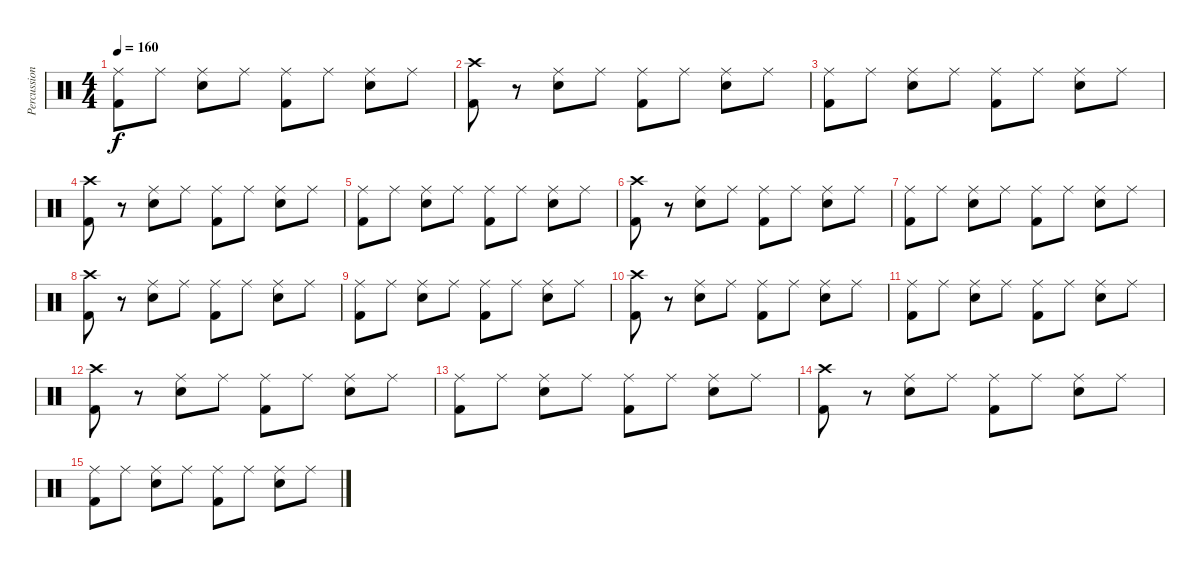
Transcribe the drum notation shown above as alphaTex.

\track ("Percussion - live 1983" "Percussion") {mute instrument percussion}
\staff {score}
\articulation defaults
\ts (4 4)
\tempo 160
\clef neutral
\ks c
("Ride (middle)" "Kick (hit) 2").8{dy f} "Ride (middle)".8 ("Ride (middle)" "Snare (hit) 2").8 "Ride (middle)".8 ("Ride (middle)" "Kick (hit) 2").8 "Ride (middle)".8 ("Ride (middle)" "Snare (hit) 2").8 "Ride (middle)".8 |
("Crash high (hit)" "Kick (hit) 2").8 r.8 ("Ride (middle)" "Snare (hit) 2").8 "Ride (middle)".8 ("Ride (middle)" "Kick (hit) 2").8 "Ride (middle)".8 ("Ride (middle)" "Snare (hit) 2").8 "Ride (middle)".8 |
("Ride (middle)" "Kick (hit) 2").8 "Ride (middle)".8 ("Ride (middle)" "Snare (hit) 2").8 "Ride (middle)".8 ("Ride (middle)" "Kick (hit) 2").8 "Ride (middle)".8 ("Ride (middle)" "Snare (hit) 2").8 "Ride (middle)".8 |
("Crash high (hit)" "Kick (hit) 2").8 r.8 ("Ride (middle)" "Snare (hit) 2").8 "Ride (middle)".8 ("Ride (middle)" "Kick (hit) 2").8 "Ride (middle)".8 ("Ride (middle)" "Snare (hit) 2").8 "Ride (middle)".8 |
("Ride (middle)" "Kick (hit) 2").8 "Ride (middle)".8 ("Ride (middle)" "Snare (hit) 2").8 "Ride (middle)".8 ("Ride (middle)" "Kick (hit) 2").8 "Ride (middle)".8 ("Ride (middle)" "Snare (hit) 2").8 "Ride (middle)".8 |
("Crash high (hit)" "Kick (hit) 2").8 r.8 ("Ride (middle)" "Snare (hit) 2").8 "Ride (middle)".8 ("Ride (middle)" "Kick (hit) 2").8 "Ride (middle)".8 ("Ride (middle)" "Snare (hit) 2").8 "Ride (middle)".8 |
("Ride (middle)" "Kick (hit) 2").8 "Ride (middle)".8 ("Ride (middle)" "Snare (hit) 2").8 "Ride (middle)".8 ("Ride (middle)" "Kick (hit) 2").8 "Ride (middle)".8 ("Ride (middle)" "Snare (hit) 2").8 "Ride (middle)".8 |
("Crash high (hit)" "Kick (hit) 2").8 r.8 ("Ride (middle)" "Snare (hit) 2").8 "Ride (middle)".8 ("Ride (middle)" "Kick (hit) 2").8 "Ride (middle)".8 ("Ride (middle)" "Snare (hit) 2").8 "Ride (middle)".8 |
("Ride (middle)" "Kick (hit) 2").8 "Ride (middle)".8 ("Ride (middle)" "Snare (hit) 2").8 "Ride (middle)".8 ("Ride (middle)" "Kick (hit) 2").8 "Ride (middle)".8 ("Ride (middle)" "Snare (hit) 2").8 "Ride (middle)".8 |
("Crash high (hit)" "Kick (hit) 2").8 r.8 ("Ride (middle)" "Snare (hit) 2").8 "Ride (middle)".8 ("Ride (middle)" "Kick (hit) 2").8 "Ride (middle)".8 ("Ride (middle)" "Snare (hit) 2").8 "Ride (middle)".8 |
("Ride (middle)" "Kick (hit) 2").8 "Ride (middle)".8 ("Ride (middle)" "Snare (hit) 2").8 "Ride (middle)".8 ("Ride (middle)" "Kick (hit) 2").8 "Ride (middle)".8 ("Ride (middle)" "Snare (hit) 2").8 "Ride (middle)".8 |
("Crash high (hit)" "Kick (hit) 2").8 r.8 ("Ride (middle)" "Snare (hit) 2").8 "Ride (middle)".8 ("Ride (middle)" "Kick (hit) 2").8 "Ride (middle)".8 ("Ride (middle)" "Snare (hit) 2").8 "Ride (middle)".8 |
("Ride (middle)" "Kick (hit) 2").8 "Ride (middle)".8 ("Ride (middle)" "Snare (hit) 2").8 "Ride (middle)".8 ("Ride (middle)" "Kick (hit) 2").8 "Ride (middle)".8 ("Ride (middle)" "Snare (hit) 2").8 "Ride (middle)".8 |
("Crash high (hit)" "Kick (hit) 2").8 r.8 ("Ride (middle)" "Snare (hit) 2").8 "Ride (middle)".8 ("Ride (middle)" "Kick (hit) 2").8 "Ride (middle)".8 ("Ride (middle)" "Snare (hit) 2").8 "Ride (middle)".8 |
("Ride (middle)" "Kick (hit) 2").8 "Ride (middle)".8 ("Ride (middle)" "Snare (hit) 2").8 "Ride (middle)".8 ("Ride (middle)" "Kick (hit) 2").8 "Ride (middle)".8 ("Ride (middle)" "Snare (hit) 2").8 "Ride (middle)".8
